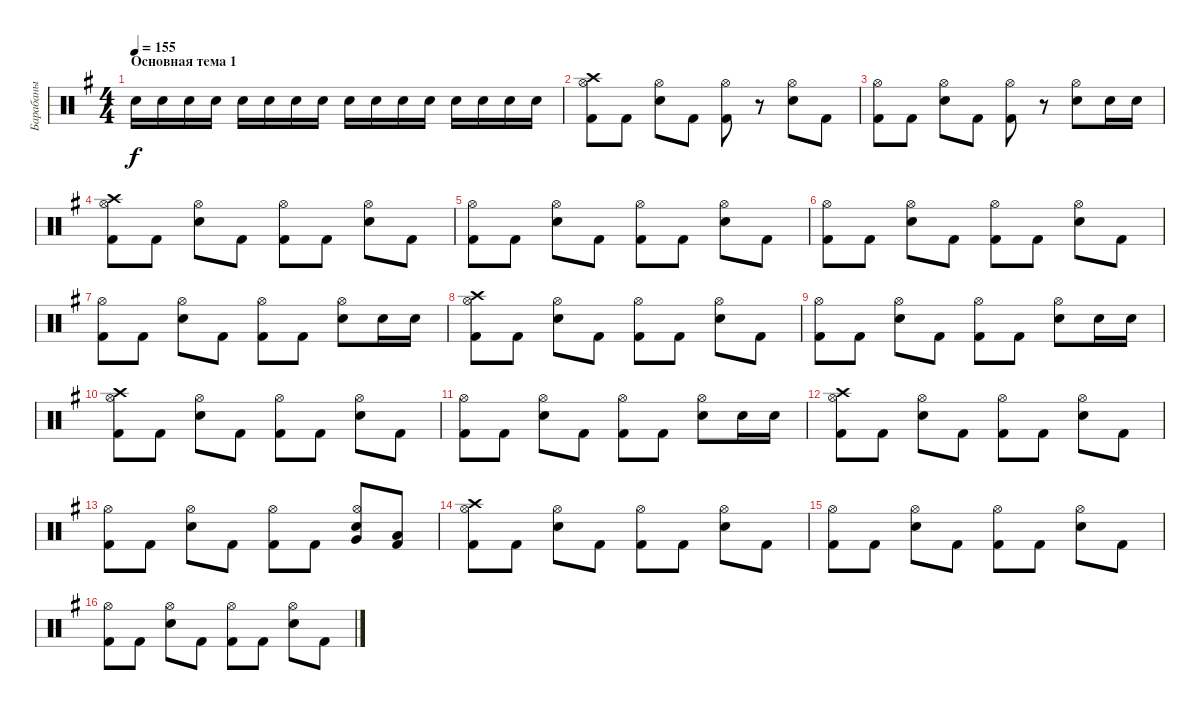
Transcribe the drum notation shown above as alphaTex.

\track ("Барабаны" "Барабаны") {instrument percussion}
\staff {score}
\articulation defaults
\ts (4 4)
\section ("" "Основная тема 1")
\tempo 155
\clef neutral
\ks eminor "Electric Snare (hit)".16{dy f} "Electric Snare (hit)".16 "Electric Snare (hit)".16 "Electric Snare (hit)".16 "Electric Snare (hit)".16 "Electric Snare (hit)".16 "Electric Snare (hit)".16 "Electric Snare (hit)".16 "Electric Snare (hit)".16 "Electric Snare (hit)".16 "Electric Snare (hit)".16 "Electric Snare (hit)".16 "Electric Snare (hit)".16 "Electric Snare (hit)".16 "Electric Snare (hit)".16 "Electric Snare (hit)".16
|
("Kick (hit) 2" "Hi-Hat (open)" "Crash high (hit)").8 "Kick (hit) 2".8 ("Electric Snare (hit)" "Hi-Hat (open)").8 "Kick (hit) 2".8 ("Kick (hit) 2" "Hi-Hat (open)").8 r.8 ("Electric Snare (hit)" "Hi-Hat (open)").8 "Kick (hit) 2".8 |
("Kick (hit) 2" "Hi-Hat (open)").8 "Kick (hit) 2".8 ("Electric Snare (hit)" "Hi-Hat (open)").8 "Kick (hit) 2".8 ("Kick (hit) 2" "Hi-Hat (open)").8 r.8 ("Electric Snare (hit)" "Hi-Hat (open)").8 "Electric Snare (hit)".16 "Electric Snare (hit)".16 |
("Kick (hit) 2" "Hi-Hat (open)" "Crash high (hit)").8 "Kick (hit) 2".8 ("Electric Snare (hit)" "Hi-Hat (open)").8 "Kick (hit) 2".8 ("Kick (hit) 2" "Hi-Hat (open)").8 "Kick (hit) 2".8 ("Electric Snare (hit)" "Hi-Hat (open)").8 "Kick (hit) 2".8 |
("Kick (hit) 2" "Hi-Hat (open)").8 "Kick (hit) 2".8 ("Electric Snare (hit)" "Hi-Hat (open)").8 "Kick (hit) 2".8 ("Kick (hit) 2" "Hi-Hat (open)").8 "Kick (hit) 2".8 ("Electric Snare (hit)" "Hi-Hat (open)").8 "Kick (hit) 2".8 |
("Kick (hit) 2" "Hi-Hat (open)").8 "Kick (hit) 2".8 ("Electric Snare (hit)" "Hi-Hat (open)").8 "Kick (hit) 2".8 ("Kick (hit) 2" "Hi-Hat (open)").8 "Kick (hit) 2".8 ("Electric Snare (hit)" "Hi-Hat (open)").8 "Kick (hit) 2".8 |
("Kick (hit) 2" "Hi-Hat (open)").8 "Kick (hit) 2".8 ("Electric Snare (hit)" "Hi-Hat (open)").8 "Kick (hit) 2".8 ("Kick (hit) 2" "Hi-Hat (open)").8 "Kick (hit) 2".8 ("Electric Snare (hit)" "Hi-Hat (open)").8 "Electric Snare (hit)".16 "Electric Snare (hit)".16 |
("Kick (hit) 2" "Hi-Hat (open)" "Crash high (hit)").8 "Kick (hit) 2".8 ("Electric Snare (hit)" "Hi-Hat (open)").8 "Kick (hit) 2".8 ("Kick (hit) 2" "Hi-Hat (open)").8 "Kick (hit) 2".8 ("Electric Snare (hit)" "Hi-Hat (open)").8 "Kick (hit) 2".8 |
("Kick (hit) 2" "Hi-Hat (open)").8 "Kick (hit) 2".8 ("Electric Snare (hit)" "Hi-Hat (open)").8 "Kick (hit) 2".8 ("Kick (hit) 2" "Hi-Hat (open)").8 "Kick (hit) 2".8 ("Electric Snare (hit)" "Hi-Hat (open)").8 "Electric Snare (hit)".16 "Electric Snare (hit)".16 |
("Kick (hit) 2" "Hi-Hat (open)" "Crash high (hit)").8 "Kick (hit) 2".8 ("Electric Snare (hit)" "Hi-Hat (open)").8 "Kick (hit) 2".8 ("Kick (hit) 2" "Hi-Hat (open)").8 "Kick (hit) 2".8 ("Electric Snare (hit)" "Hi-Hat (open)").8 "Kick (hit) 2".8 |
("Kick (hit) 2" "Hi-Hat (open)").8 "Kick (hit) 2".8 ("Electric Snare (hit)" "Hi-Hat (open)").8 "Kick (hit) 2".8 ("Kick (hit) 2" "Hi-Hat (open)").8 "Kick (hit) 2".8 ("Electric Snare (hit)" "Hi-Hat (open)").8 "Electric Snare (hit)".16 "Electric Snare (hit)".16 |
("Kick (hit) 2" "Hi-Hat (open)" "Crash high (hit)").8 "Kick (hit) 2".8 ("Electric Snare (hit)" "Hi-Hat (open)").8 "Kick (hit) 2".8 ("Kick (hit) 2" "Hi-Hat (open)").8 "Kick (hit) 2".8 ("Electric Snare (hit)" "Hi-Hat (open)").8 "Kick (hit) 2".8 |
("Kick (hit) 2" "Hi-Hat (open)").8 "Kick (hit) 2".8 ("Electric Snare (hit)" "Hi-Hat (open)").8 "Kick (hit) 2".8 ("Kick (hit) 2" "Hi-Hat (open)").8 "Kick (hit) 2".8 ("Electric Snare (hit)" "Hi-Hat (open)" "Very Low Tom (hit)").8 ("Kick (hit) 2" "Low Floor Tom (hit)").8 |
("Kick (hit) 2" "Hi-Hat (open)" "Crash high (hit)").8 "Kick (hit) 2".8 ("Electric Snare (hit)" "Hi-Hat (open)").8 "Kick (hit) 2".8 ("Kick (hit) 2" "Hi-Hat (open)").8 "Kick (hit) 2".8 ("Electric Snare (hit)" "Hi-Hat (open)").8 "Kick (hit) 2".8 |
("Kick (hit) 2" "Hi-Hat (open)").8 "Kick (hit) 2".8 ("Electric Snare (hit)" "Hi-Hat (open)").8 "Kick (hit) 2".8 ("Kick (hit) 2" "Hi-Hat (open)").8 "Kick (hit) 2".8 ("Electric Snare (hit)" "Hi-Hat (open)").8 "Kick (hit) 2".8 |
("Kick (hit) 2" "Hi-Hat (open)").8 "Kick (hit) 2".8 ("Electric Snare (hit)" "Hi-Hat (open)").8 "Kick (hit) 2".8 ("Kick (hit) 2" "Hi-Hat (open)").8 "Kick (hit) 2".8 ("Electric Snare (hit)" "Hi-Hat (open)").8 "Kick (hit) 2".8
